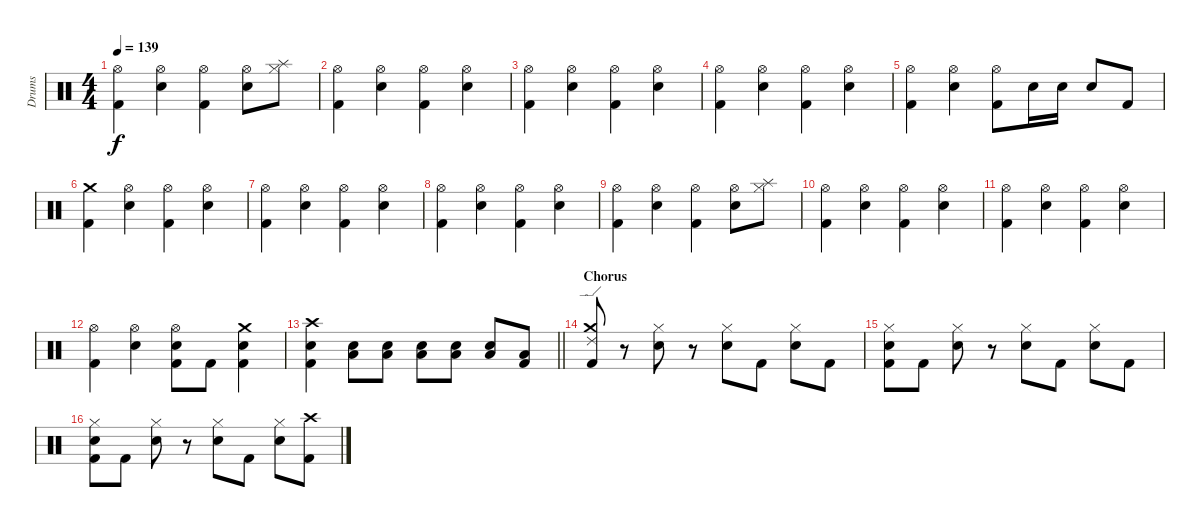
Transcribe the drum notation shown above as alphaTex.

\track ("Drums" "Drums") {instrument percussion}
\staff {score}
\articulation defaults
\ts (4 4)
\tempo 139
\clef neutral
\ks c
("Hi-Hat (open)" "Kick (hit) 2").4{dy f} ("Hi-Hat (open)" "Electric Snare (hit)").4 ("Hi-Hat (open)" "Kick (hit) 2").4 ("Hi-Hat (open)" "Electric Snare (hit)").8 ("Splash (hit)" "Hi-Hat (closed)").8 |
("Hi-Hat (open)" "Kick (hit) 2").4 ("Hi-Hat (open)" "Electric Snare (hit)").4 ("Hi-Hat (open)" "Kick (hit) 2").4 ("Hi-Hat (open)" "Electric Snare (hit)").4 |
("Hi-Hat (open)" "Kick (hit) 2").4 ("Hi-Hat (open)" "Electric Snare (hit)").4 ("Hi-Hat (open)" "Kick (hit) 2").4 ("Hi-Hat (open)" "Electric Snare (hit)").4 |
("Hi-Hat (open)" "Kick (hit) 2").4 ("Hi-Hat (open)" "Electric Snare (hit)").4 ("Hi-Hat (open)" "Kick (hit) 2").4 ("Hi-Hat (open)" "Electric Snare (hit)").4 |
("Hi-Hat (open)" "Kick (hit) 2").4 ("Hi-Hat (open)" "Electric Snare (hit)").4 ("Hi-Hat (open)" "Kick (hit) 2").8 "Electric Snare (hit)".16 "Electric Snare (hit)".16 "Electric Snare (hit)".8 "Kick (hit) 2".8 |
("Crash medium (hit)" "Kick (hit) 2").4 ("Hi-Hat (open)" "Electric Snare (hit)").4 ("Hi-Hat (open)" "Kick (hit) 2").4 ("Hi-Hat (open)" "Electric Snare (hit)").4 |
("Hi-Hat (open)" "Kick (hit) 2").4 ("Hi-Hat (open)" "Electric Snare (hit)").4 ("Hi-Hat (open)" "Kick (hit) 2").4 ("Hi-Hat (open)" "Electric Snare (hit)").4 |
("Hi-Hat (open)" "Kick (hit) 2").4 ("Hi-Hat (open)" "Electric Snare (hit)").4 ("Hi-Hat (open)" "Kick (hit) 2").4 ("Hi-Hat (open)" "Electric Snare (hit)").4 |
("Hi-Hat (open)" "Kick (hit) 2").4 ("Hi-Hat (open)" "Electric Snare (hit)").4 ("Hi-Hat (open)" "Kick (hit) 2").4 ("Hi-Hat (open)" "Electric Snare (hit)").8 ("Splash (hit)" "Hi-Hat (closed)").8 |
("Hi-Hat (open)" "Kick (hit) 2").4 ("Hi-Hat (open)" "Electric Snare (hit)").4 ("Hi-Hat (open)" "Kick (hit) 2").4 ("Hi-Hat (open)" "Electric Snare (hit)").4 |
("Hi-Hat (open)" "Kick (hit) 2").4 ("Hi-Hat (open)" "Electric Snare (hit)").4 ("Hi-Hat (open)" "Kick (hit) 2").4 ("Hi-Hat (open)" "Electric Snare (hit)").4 |
("Hi-Hat (open)" "Kick (hit) 2").4 ("Hi-Hat (open)" "Electric Snare (hit)").4 ("Hi-Hat (open)" "Electric Snare (hit)" "Kick (hit) 2").8 "Kick (hit) 2".8 ("Crash medium (hit)" "Electric Snare (hit)" "Kick (hit) 2").4 |
\barLineRight lightlight
("Crash high (hit)" "Electric Snare (hit)" "Kick (hit) 2").4 ("Electric Snare (hit)" "Low Tom (hit)").8 ("Electric Snare (hit)" "Low Tom (hit)").8 ("Electric Snare (hit)" "Low Tom (hit)").8 ("Electric Snare (hit)" "Low Tom (hit)").8 ("Electric Snare (hit)" "Low Tom (hit)").8 ("Low Tom (hit)" "Kick (hit) 2").8 |
\section ("" "Chorus")
("Ride (edge) 2" "Crash medium (hit)" "Kick (hit) 2").8 r.8 ("Hi-Hat (closed)" "Electric Snare (hit)").8 r.8 ("Hi-Hat (closed)" "Electric Snare (hit)").8 "Kick (hit) 2".8 ("Hi-Hat (closed)" "Electric Snare (hit)").8 "Kick (hit) 2".8 |
("Hi-Hat (closed)" "Electric Snare (hit)" "Kick (hit) 2").8 "Kick (hit) 2".8 ("Hi-Hat (closed)" "Electric Snare (hit)").8 r.8 ("Hi-Hat (closed)" "Electric Snare (hit)").8 "Kick (hit) 2".8 ("Hi-Hat (closed)" "Electric Snare (hit)").8 "Kick (hit) 2".8 |
("Hi-Hat (closed)" "Electric Snare (hit)" "Kick (hit) 2").8 "Kick (hit) 2".8 ("Hi-Hat (closed)" "Electric Snare (hit)").8 r.8 ("Hi-Hat (closed)" "Electric Snare (hit)").8 "Kick (hit) 2".8 ("Hi-Hat (closed)" "Electric Snare (hit)").8 ("Crash high (hit)" "Kick (hit) 2").8
